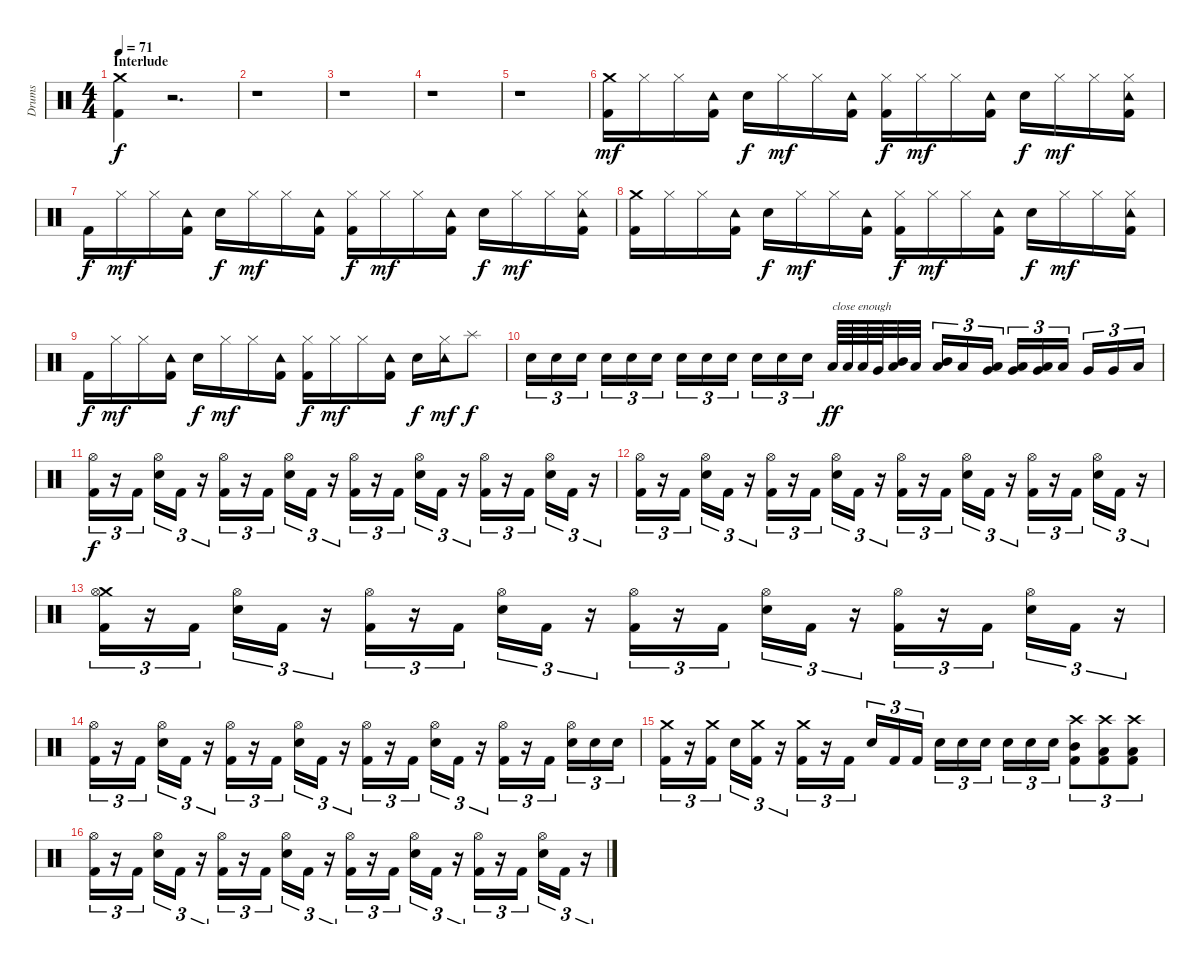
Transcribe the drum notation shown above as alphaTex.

\track ("Drums" "Drums") {instrument percussion}
\staff {score}
\articulation defaults
\ts (4 4)
\section ("" "Interlude")
\tempo 71
\clef neutral
\ks c
("Crash medium (hit)" "Kick (hit) 2").4{dy f} r.2{d} |
r.1 |
r.1 |
r.1 |
r.1 |
("Crash medium (hit)" "Kick (hit) 2").16{dy mf} "Hi-Hat (closed)".16 "Hi-Hat (closed)".16 ("Tambourine (hit)" "Kick (hit) 2").16 "Electric Snare (hit)".16{dy f} "Hi-Hat (closed)".16{dy mf} "Hi-Hat (closed)".16 ("Tambourine (hit)" "Kick (hit) 2").16 ("Hi-Hat (closed)" "Kick (hit) 2").16{dy f} "Hi-Hat (closed)".16{dy mf} "Hi-Hat (closed)".16 ("Tambourine (hit)" "Kick (hit) 2").16 "Electric Snare (hit)".16{dy f} "Hi-Hat (closed)".16{dy mf} "Hi-Hat (closed)".16 ("Tambourine (hit)" "Hi-Hat (closed)" "Kick (hit) 2").16 |
"Kick (hit) 2".16{dy f} "Hi-Hat (closed)".16{dy mf} "Hi-Hat (closed)".16 ("Tambourine (hit)" "Kick (hit) 2").16 "Electric Snare (hit)".16{dy f} "Hi-Hat (closed)".16{dy mf} "Hi-Hat (closed)".16 ("Tambourine (hit)" "Kick (hit) 2").16 ("Hi-Hat (closed)" "Kick (hit) 2").16{dy f} "Hi-Hat (closed)".16{dy mf} "Hi-Hat (closed)".16 ("Tambourine (hit)" "Kick (hit) 2").16 "Electric Snare (hit)".16{dy f} "Hi-Hat (closed)".16{dy mf} "Hi-Hat (closed)".16 ("Tambourine (hit)" "Hi-Hat (closed)" "Kick (hit) 2").16 |
("Crash medium (hit)" "Kick (hit) 2").16 "Hi-Hat (closed)".16 "Hi-Hat (closed)".16 ("Tambourine (hit)" "Kick (hit) 2").16 "Electric Snare (hit)".16{dy f} "Hi-Hat (closed)".16{dy mf} "Hi-Hat (closed)".16 ("Tambourine (hit)" "Kick (hit) 2").16 ("Hi-Hat (closed)" "Kick (hit) 2").16{dy f} "Hi-Hat (closed)".16{dy mf} "Hi-Hat (closed)".16 ("Tambourine (hit)" "Kick (hit) 2").16 "Electric Snare (hit)".16{dy f} "Hi-Hat (closed)".16{dy mf} "Hi-Hat (closed)".16 ("Tambourine (hit)" "Hi-Hat (closed)" "Kick (hit) 2").16 |
"Kick (hit) 2".16{dy f} "Hi-Hat (closed)".16{dy mf} "Hi-Hat (closed)".16 ("Tambourine (hit)" "Kick (hit) 2").16 "Electric Snare (hit)".16{dy f} "Hi-Hat (closed)".16{dy mf} "Hi-Hat (closed)".16 ("Tambourine (hit)" "Kick (hit) 2").16 ("Hi-Hat (closed)" "Kick (hit) 2").16{dy f} "Hi-Hat (closed)".16{dy mf} "Hi-Hat (closed)".16 ("Tambourine (hit)" "Kick (hit) 2").16 "Electric Snare (hit)".16{dy f} ("Tambourine (hit)" "Hi-Hat (closed)").16{dy mf} "Splash (hit)".8{dy f} |
"Electric Snare (hit)".16{tu (3 2)} "Electric Snare (hit)".16{tu (3 2)} "Electric Snare (hit)".16{tu (3 2)} "Electric Snare (hit)".16{tu (3 2)} "Electric Snare (hit)".16{tu (3 2)} "Electric Snare (hit)".16{tu (3 2)} "Electric Snare (hit)".16{tu (3 2)} "Electric Snare (hit)".16{tu (3 2)} "Electric Snare (hit)".16{tu (3 2)} "Electric Snare (hit)".16{tu (3 2)} "Electric Snare (hit)".16{tu (3 2)} "Electric Snare (hit)".16{tu (3 2)} "Low Tom (hit)".64{txt "close enough" dy ff} "Low Tom (hit)".64 "Low Tom (hit)".64 "Very Low Tom (hit)".64 ("Low Tom (hit)" "Mid Tom (hit)").32 "Low Tom (hit)".32 ("Mid Tom (hit)" "Low Tom (hit)").16{tu (3 2)} "Low Tom (hit)".16{tu (3 2)} ("Low Tom (hit)" "Very Low Tom (hit)").16{tu (3 2)} ("Very Low Tom (hit)" "Low Tom (hit)").16{tu (3 2)} ("Very Low Tom (hit)" "Low Tom (hit)").16{tu (3 2)} "Low Floor Tom (hit)".16{tu (3 2)} "Very Low Tom (hit)".16{tu (3 2)} "Very Low Tom (hit)".16{tu (3 2)} "Low Floor Tom (hit)".16{tu (3 2)} |
("Hi-Hat (open)" "Kick (hit) 2").16{tu (3 2) dy f} r.16{tu (3 2)} "Kick (hit) 2".16{tu (3 2)} ("Hi-Hat (open)" "Electric Snare (hit)").16{tu (3 2)} "Kick (hit) 2".16{tu (3 2)} r.16{tu (3 2)} ("Hi-Hat (open)" "Kick (hit) 2").16{tu (3 2)} r.16{tu (3 2)} "Kick (hit) 2".16{tu (3 2)} ("Hi-Hat (open)" "Electric Snare (hit)").16{tu (3 2)} "Kick (hit) 2".16{tu (3 2)} r.16{tu (3 2)} ("Hi-Hat (open)" "Kick (hit) 2").16{tu (3 2)} r.16{tu (3 2)} "Kick (hit) 2".16{tu (3 2)} ("Hi-Hat (open)" "Electric Snare (hit)").16{tu (3 2)} "Kick (hit) 2".16{tu (3 2)} r.16{tu (3 2)} ("Hi-Hat (open)" "Kick (hit) 2").16{tu (3 2)} r.16{tu (3 2)} "Kick (hit) 2".16{tu (3 2)} ("Hi-Hat (open)" "Electric Snare (hit)").16{tu (3 2)} "Kick (hit) 2".16{tu (3 2)} r.16{tu (3 2)} |
("Hi-Hat (open)" "Kick (hit) 2").16{tu (3 2)} r.16{tu (3 2)} "Kick (hit) 2".16{tu (3 2)} ("Hi-Hat (open)" "Electric Snare (hit)").16{tu (3 2)} "Kick (hit) 2".16{tu (3 2)} r.16{tu (3 2)} ("Hi-Hat (open)" "Kick (hit) 2").16{tu (3 2)} r.16{tu (3 2)} "Kick (hit) 2".16{tu (3 2)} ("Hi-Hat (open)" "Electric Snare (hit)").16{tu (3 2)} "Kick (hit) 2".16{tu (3 2)} r.16{tu (3 2)} ("Hi-Hat (open)" "Kick (hit) 2").16{tu (3 2)} r.16{tu (3 2)} "Kick (hit) 2".16{tu (3 2)} ("Hi-Hat (open)" "Electric Snare (hit)").16{tu (3 2)} "Kick (hit) 2".16{tu (3 2)} r.16{tu (3 2)} ("Hi-Hat (open)" "Kick (hit) 2").16{tu (3 2)} r.16{tu (3 2)} "Kick (hit) 2".16{tu (3 2)} ("Hi-Hat (open)" "Electric Snare (hit)").16{tu (3 2)} "Kick (hit) 2".16{tu (3 2)} r.16{tu (3 2)} |
("Crash medium (hit)" "Hi-Hat (open)" "Kick (hit) 2").16{tu (3 2)} r.16{tu (3 2)} "Kick (hit) 2".16{tu (3 2)} ("Hi-Hat (open)" "Electric Snare (hit)").16{tu (3 2)} "Kick (hit) 2".16{tu (3 2)} r.16{tu (3 2)} ("Hi-Hat (open)" "Kick (hit) 2").16{tu (3 2)} r.16{tu (3 2)} "Kick (hit) 2".16{tu (3 2)} ("Hi-Hat (open)" "Electric Snare (hit)").16{tu (3 2)} "Kick (hit) 2".16{tu (3 2)} r.16{tu (3 2)} ("Hi-Hat (open)" "Kick (hit) 2").16{tu (3 2)} r.16{tu (3 2)} "Kick (hit) 2".16{tu (3 2)} ("Hi-Hat (open)" "Electric Snare (hit)").16{tu (3 2)} "Kick (hit) 2".16{tu (3 2)} r.16{tu (3 2)} ("Hi-Hat (open)" "Kick (hit) 2").16{tu (3 2)} r.16{tu (3 2)} "Kick (hit) 2".16{tu (3 2)} ("Hi-Hat (open)" "Electric Snare (hit)").16{tu (3 2)} "Kick (hit) 2".16{tu (3 2)} r.16{tu (3 2)} |
("Hi-Hat (open)" "Kick (hit) 2").16{tu (3 2)} r.16{tu (3 2)} "Kick (hit) 2".16{tu (3 2)} ("Hi-Hat (open)" "Electric Snare (hit)").16{tu (3 2)} "Kick (hit) 2".16{tu (3 2)} r.16{tu (3 2)} ("Hi-Hat (open)" "Kick (hit) 2").16{tu (3 2)} r.16{tu (3 2)} "Kick (hit) 2".16{tu (3 2)} ("Hi-Hat (open)" "Electric Snare (hit)").16{tu (3 2)} "Kick (hit) 2".16{tu (3 2)} r.16{tu (3 2)} ("Hi-Hat (open)" "Kick (hit) 2").16{tu (3 2)} r.16{tu (3 2)} "Kick (hit) 2".16{tu (3 2)} ("Hi-Hat (open)" "Electric Snare (hit)").16{tu (3 2)} "Kick (hit) 2".16{tu (3 2)} r.16{tu (3 2)} ("Hi-Hat (open)" "Kick (hit) 2").16{tu (3 2)} r.16{tu (3 2)} "Kick (hit) 2".16{tu (3 2)} ("Hi-Hat (open)" "Electric Snare (hit)").16{tu (3 2)} "Electric Snare (hit)".16{tu (3 2)} "Electric Snare (hit)".16{tu (3 2)} |
("Crash medium (hit)" "Kick (hit) 2").16{tu (3 2)} r.16{tu (3 2)} ("Crash medium (hit)" "Kick (hit) 2").16{tu (3 2)} "Electric Snare (hit)".16{tu (3 2)} ("Crash medium (hit)" "Kick (hit) 2").16{tu (3 2)} r.16{tu (3 2)} ("Crash medium (hit)" "Kick (hit) 2").16{tu (3 2)} r.16{tu (3 2)} "Kick (hit) 2".16{tu (3 2)} "Electric Snare (hit)".16{tu (3 2)} "Kick (hit) 2".16{tu (3 2)} "Kick (hit) 2".16{tu (3 2)} "Electric Snare (hit)".16{tu (3 2)} "Electric Snare (hit)".16{tu (3 2)} "Electric Snare (hit)".16{tu (3 2)} "Electric Snare (hit)".16{tu (3 2)} "Electric Snare (hit)".16{tu (3 2)} "Electric Snare (hit)".16{tu (3 2)} ("Crash high (hit)" "Mid Tom (hit)" "Kick (hit) 2").8{tu (3 2)} ("Crash high (hit)" "Low Tom (hit)" "Kick (hit) 2").8{tu (3 2)} ("Crash high (hit)" "Low Tom (hit)" "Kick (hit) 2").8{tu (3 2)} |
("Hi-Hat (open)" "Kick (hit) 2").16{tu (3 2)} r.16{tu (3 2)} "Kick (hit) 2".16{tu (3 2)} ("Hi-Hat (open)" "Electric Snare (hit)").16{tu (3 2)} "Kick (hit) 2".16{tu (3 2)} r.16{tu (3 2)} ("Hi-Hat (open)" "Kick (hit) 2").16{tu (3 2)} r.16{tu (3 2)} "Kick (hit) 2".16{tu (3 2)} ("Hi-Hat (open)" "Electric Snare (hit)").16{tu (3 2)} "Kick (hit) 2".16{tu (3 2)} r.16{tu (3 2)} ("Hi-Hat (open)" "Kick (hit) 2").16{tu (3 2)} r.16{tu (3 2)} "Kick (hit) 2".16{tu (3 2)} ("Hi-Hat (open)" "Electric Snare (hit)").16{tu (3 2)} "Kick (hit) 2".16{tu (3 2)} r.16{tu (3 2)} ("Hi-Hat (open)" "Kick (hit) 2").16{tu (3 2)} r.16{tu (3 2)} "Kick (hit) 2".16{tu (3 2)} ("Hi-Hat (open)" "Electric Snare (hit)").16{tu (3 2)} "Kick (hit) 2".16{tu (3 2)} r.16{tu (3 2)}
